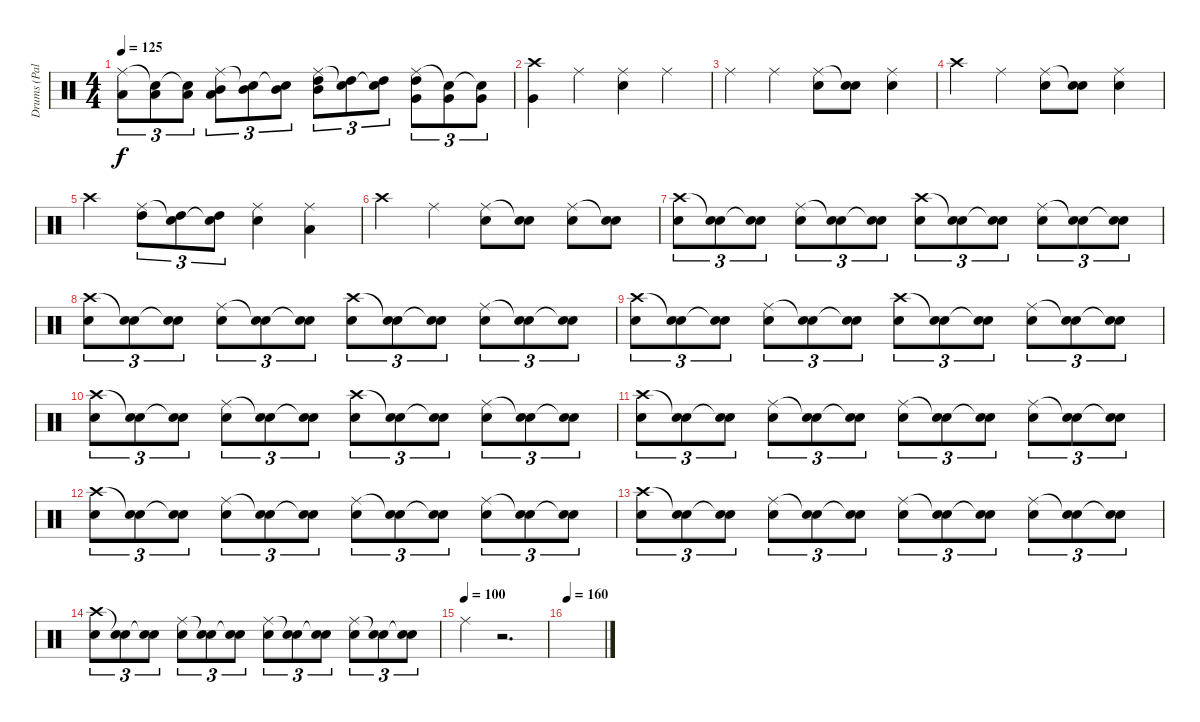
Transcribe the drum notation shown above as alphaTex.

\track ("Drums (Palmer)" "Drums (Pal") {instrument percussion}
\staff {score}
\articulation defaults
\ts (4 4)
\tempo 125
\clef neutral
\ks c
("Ride (middle)" "Low Tom (hit)").8{tu (3 2) dy f} ("Snare (hit)"{t} "Low Tom (hit)").8{tu (3 2)} ("Snare (hit)"{t} "Low Tom (hit)").8{tu (3 2)} ("Ride (middle)" "Low Tom (hit)" "Mid Tom (hit)").8{tu (3 2)} ("Snare (hit)"{t} "Mid Tom (hit)").8{tu (3 2)} ("Snare (hit)"{t} "Mid Tom (hit)").8{tu (3 2)} ("Ride (middle)" "Mid Tom (hit)" "High Tom (hit)").8{tu (3 2)} ("Snare (hit)"{t} "High Tom (hit)").8{tu (3 2)} ("Snare (hit)"{t} "High Tom (hit)").8{tu (3 2)} ("Ride (middle)" "High Tom (hit)" "Very Low Tom (hit)").8{tu (3 2)} ("Snare (hit)"{t} "Very Low Tom (hit)").8{tu (3 2)} ("Snare (hit)"{t} "Very Low Tom (hit)").8{tu (3 2)} |
("Crash high (hit)" "Very Low Tom (hit)").4 "Ride (middle)".4 ("Ride (middle)" "Snare (hit) 2").4 "Ride (middle)".4 |
"Ride (middle)".4 "Ride (middle)".4 ("Ride (middle)" "Snare (hit) 2").8 ("Snare (hit)"{t} "Snare (hit) 2").8 ("Ride (middle)" "Snare (hit) 2").4 |
"Crash high (hit)".4 "Ride (middle)".4 ("Ride (middle)" "Snare (hit) 2").8 ("Snare (hit)"{t} "Snare (hit) 2").8 ("Ride (middle)" "Snare (hit) 2").4 |
"Crash high (hit)".4 ("Ride (middle)" "High Tom (hit)").8{tu (3 2)} ("Snare (hit)"{t} "High Tom (hit)").8{tu (3 2)} ("Snare (hit)"{t} "High Tom (hit)").8{tu (3 2)} ("Ride (middle)" "Snare (hit) 2").4 ("Ride (middle)" "Low Tom (hit)").4 |
"Crash high (hit)".4 "Ride (middle)".4 ("Ride (middle)" "Snare (hit) 2").8 ("Snare (hit)"{t} "Snare (hit) 2").8 ("Ride (middle)" "Snare (hit) 2").8 ("Snare (hit)"{t} "Snare (hit) 2").8 |
("Crash high (hit)" "Snare (hit) 2").8{tu (3 2)} ("Snare (hit)"{t} "Snare (hit) 2").8{tu (3 2)} ("Snare (hit)"{t} "Snare (hit) 2").8{tu (3 2)} ("Ride (middle)" "Snare (hit) 2").8{tu (3 2)} ("Snare (hit)"{t} "Snare (hit) 2").8{tu (3 2)} ("Snare (hit)"{t} "Snare (hit) 2").8{tu (3 2)} ("Crash high (hit)" "Snare (hit) 2").8{tu (3 2)} ("Snare (hit)"{t} "Snare (hit) 2").8{tu (3 2)} ("Snare (hit)"{t} "Snare (hit) 2").8{tu (3 2)} ("Ride (middle)" "Snare (hit) 2").8{tu (3 2)} ("Snare (hit)"{t} "Snare (hit) 2").8{tu (3 2)} ("Snare (hit)"{t} "Snare (hit) 2").8{tu (3 2)} |
("Crash high (hit)" "Snare (hit) 2").8{tu (3 2)} ("Snare (hit)"{t} "Snare (hit) 2").8{tu (3 2)} ("Snare (hit)"{t} "Snare (hit) 2").8{tu (3 2)} ("Ride (middle)" "Snare (hit) 2").8{tu (3 2)} ("Snare (hit)"{t} "Snare (hit) 2").8{tu (3 2)} ("Snare (hit)"{t} "Snare (hit) 2").8{tu (3 2)} ("Crash high (hit)" "Snare (hit) 2").8{tu (3 2)} ("Snare (hit)"{t} "Snare (hit) 2").8{tu (3 2)} ("Snare (hit)"{t} "Snare (hit) 2").8{tu (3 2)} ("Ride (middle)" "Snare (hit) 2").8{tu (3 2)} ("Snare (hit)"{t} "Snare (hit) 2").8{tu (3 2)} ("Snare (hit)"{t} "Snare (hit) 2").8{tu (3 2)} |
("Crash high (hit)" "Snare (hit) 2").8{tu (3 2)} ("Snare (hit)"{t} "Snare (hit) 2").8{tu (3 2)} ("Snare (hit)"{t} "Snare (hit) 2").8{tu (3 2)} ("Ride (middle)" "Snare (hit) 2").8{tu (3 2)} ("Snare (hit)"{t} "Snare (hit) 2").8{tu (3 2)} ("Snare (hit)"{t} "Snare (hit) 2").8{tu (3 2)} ("Crash high (hit)" "Snare (hit) 2").8{tu (3 2)} ("Snare (hit)"{t} "Snare (hit) 2").8{tu (3 2)} ("Snare (hit)"{t} "Snare (hit) 2").8{tu (3 2)} ("Ride (middle)" "Snare (hit) 2").8{tu (3 2)} ("Snare (hit)"{t} "Snare (hit) 2").8{tu (3 2)} ("Snare (hit)"{t} "Snare (hit) 2").8{tu (3 2)} |
("Crash high (hit)" "Snare (hit) 2").8{tu (3 2)} ("Snare (hit)"{t} "Snare (hit) 2").8{tu (3 2)} ("Snare (hit)"{t} "Snare (hit) 2").8{tu (3 2)} ("Ride (middle)" "Snare (hit) 2").8{tu (3 2)} ("Snare (hit)"{t} "Snare (hit) 2").8{tu (3 2)} ("Snare (hit)"{t} "Snare (hit) 2").8{tu (3 2)} ("Crash high (hit)" "Snare (hit) 2").8{tu (3 2)} ("Snare (hit)"{t} "Snare (hit) 2").8{tu (3 2)} ("Snare (hit)"{t} "Snare (hit) 2").8{tu (3 2)} ("Ride (middle)" "Snare (hit) 2").8{tu (3 2)} ("Snare (hit)"{t} "Snare (hit) 2").8{tu (3 2)} ("Snare (hit)"{t} "Snare (hit) 2").8{tu (3 2)} |
("Crash high (hit)" "Snare (hit) 2").8{tu (3 2)} ("Snare (hit)"{t} "Snare (hit) 2").8{tu (3 2)} ("Snare (hit)"{t} "Snare (hit) 2").8{tu (3 2)} ("Ride (middle)" "Snare (hit) 2").8{tu (3 2)} ("Snare (hit)"{t} "Snare (hit) 2").8{tu (3 2)} ("Snare (hit)"{t} "Snare (hit) 2").8{tu (3 2)} ("Ride (middle)" "Snare (hit) 2").8{tu (3 2)} ("Snare (hit)"{t} "Snare (hit) 2").8{tu (3 2)} ("Snare (hit)"{t} "Snare (hit) 2").8{tu (3 2)} ("Ride (middle)" "Snare (hit) 2").8{tu (3 2)} ("Snare (hit)"{t} "Snare (hit) 2").8{tu (3 2)} ("Snare (hit)"{t} "Snare (hit) 2").8{tu (3 2)} |
("Crash high (hit)" "Snare (hit) 2").8{tu (3 2)} ("Snare (hit)"{t} "Snare (hit) 2").8{tu (3 2)} ("Snare (hit)"{t} "Snare (hit) 2").8{tu (3 2)} ("Ride (middle)" "Snare (hit) 2").8{tu (3 2)} ("Snare (hit)"{t} "Snare (hit) 2").8{tu (3 2)} ("Snare (hit)"{t} "Snare (hit) 2").8{tu (3 2)} ("Ride (middle)" "Snare (hit) 2").8{tu (3 2)} ("Snare (hit)"{t} "Snare (hit) 2").8{tu (3 2)} ("Snare (hit)"{t} "Snare (hit) 2").8{tu (3 2)} ("Ride (middle)" "Snare (hit) 2").8{tu (3 2)} ("Snare (hit)"{t} "Snare (hit) 2").8{tu (3 2)} ("Snare (hit)"{t} "Snare (hit) 2").8{tu (3 2)} |
("Crash high (hit)" "Snare (hit) 2").8{tu (3 2)} ("Snare (hit)"{t} "Snare (hit) 2").8{tu (3 2)} ("Snare (hit)"{t} "Snare (hit) 2").8{tu (3 2)} ("Ride (middle)" "Snare (hit) 2").8{tu (3 2)} ("Snare (hit)"{t} "Snare (hit) 2").8{tu (3 2)} ("Snare (hit)"{t} "Snare (hit) 2").8{tu (3 2)} ("Ride (middle)" "Snare (hit) 2").8{tu (3 2)} ("Snare (hit)"{t} "Snare (hit) 2").8{tu (3 2)} ("Snare (hit)"{t} "Snare (hit) 2").8{tu (3 2)} ("Ride (middle)" "Snare (hit) 2").8{tu (3 2)} ("Snare (hit)"{t} "Snare (hit) 2").8{tu (3 2)} ("Snare (hit)"{t} "Snare (hit) 2").8{tu (3 2)} |
("Crash high (hit)" "Snare (hit) 2").8{tu (3 2)} ("Snare (hit)"{t} "Snare (hit) 2").8{tu (3 2)} ("Snare (hit)"{t} "Snare (hit) 2").8{tu (3 2)} ("Ride (middle)" "Snare (hit) 2").8{tu (3 2)} ("Snare (hit)"{t} "Snare (hit) 2").8{tu (3 2)} ("Snare (hit)"{t} "Snare (hit) 2").8{tu (3 2)} ("Ride (middle)" "Snare (hit) 2").8{tu (3 2)} ("Snare (hit)"{t} "Snare (hit) 2").8{tu (3 2)} ("Snare (hit)"{t} "Snare (hit) 2").8{tu (3 2)} ("Ride (middle)" "Snare (hit) 2").8{tu (3 2)} ("Snare (hit)"{t} "Snare (hit) 2").8{tu (3 2)} ("Snare (hit)"{t} "Snare (hit) 2").8{tu (3 2)} |
\tempo (100)
"Ride (middle)".4 r.2{d} |
\tempo 160
